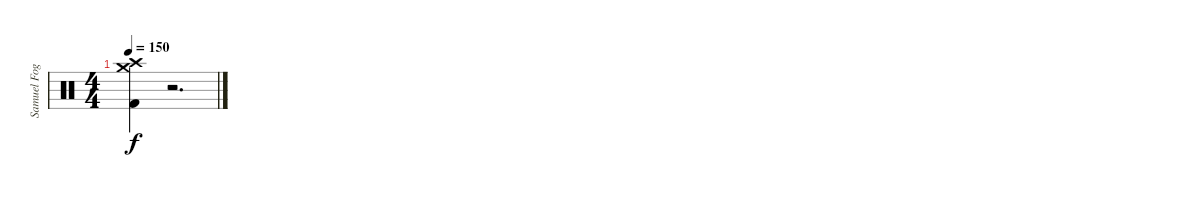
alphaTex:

\track ("Samuel Fogarino" "Samuel Fog") {instrument percussion}
\staff {score}
\articulation defaults
\ts (4 4)
\tempo 150
\clef neutral
\ks c
("Crash high (hit)" "Crash medium (hit)" "Kick (hit) 2").4{dy f} r.2{d}
